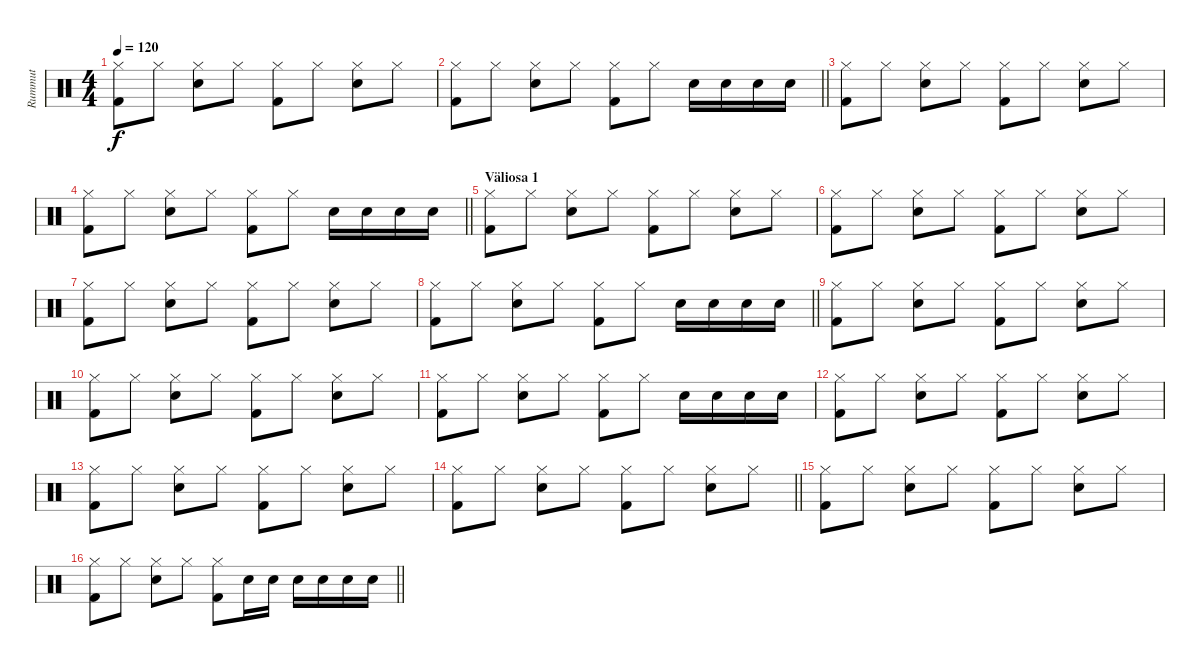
\track ("Rummut" "Rummut") {instrument percussion}
\staff {score}
\articulation defaults
\ts (4 4)
\tempo 120
\clef neutral
\ks c
("Hi-Hat (closed)" "Kick (hit) 2").8{dy f} "Hi-Hat (closed)".8 ("Hi-Hat (closed)" "Electric Snare (hit)").8 "Hi-Hat (closed)".8 ("Hi-Hat (closed)" "Kick (hit) 2").8 "Hi-Hat (closed)".8 ("Hi-Hat (closed)" "Electric Snare (hit)").8 "Hi-Hat (closed)".8 |
\barLineRight lightlight
("Hi-Hat (closed)" "Kick (hit) 2").8 "Hi-Hat (closed)".8 ("Hi-Hat (closed)" "Electric Snare (hit)").8 "Hi-Hat (closed)".8 ("Hi-Hat (closed)" "Kick (hit) 2").8 "Hi-Hat (closed)".8 "Electric Snare (hit)".16 "Electric Snare (hit)".16 "Electric Snare (hit)".16 "Electric Snare (hit)".16 |
("Hi-Hat (closed)" "Kick (hit) 2").8 "Hi-Hat (closed)".8 ("Hi-Hat (closed)" "Electric Snare (hit)").8 "Hi-Hat (closed)".8 ("Hi-Hat (closed)" "Kick (hit) 2").8 "Hi-Hat (closed)".8 ("Hi-Hat (closed)" "Electric Snare (hit)").8 "Hi-Hat (closed)".8 |
\barLineRight lightlight
("Hi-Hat (closed)" "Kick (hit) 2").8 "Hi-Hat (closed)".8 ("Hi-Hat (closed)" "Electric Snare (hit)").8 "Hi-Hat (closed)".8 ("Hi-Hat (closed)" "Kick (hit) 2").8 "Hi-Hat (closed)".8 "Electric Snare (hit)".16 "Electric Snare (hit)".16 "Electric Snare (hit)".16 "Electric Snare (hit)".16 |
\section ("" "Väliosa 1")
("Hi-Hat (closed)" "Kick (hit) 2").8 "Hi-Hat (closed)".8 ("Hi-Hat (closed)" "Electric Snare (hit)").8 "Hi-Hat (closed)".8 ("Hi-Hat (closed)" "Kick (hit) 2").8 "Hi-Hat (closed)".8 ("Hi-Hat (closed)" "Electric Snare (hit)").8 "Hi-Hat (closed)".8 |
("Hi-Hat (closed)" "Kick (hit) 2").8 "Hi-Hat (closed)".8 ("Hi-Hat (closed)" "Electric Snare (hit)").8 "Hi-Hat (closed)".8 ("Hi-Hat (closed)" "Kick (hit) 2").8 "Hi-Hat (closed)".8 ("Hi-Hat (closed)" "Electric Snare (hit)").8 "Hi-Hat (closed)".8 |
("Hi-Hat (closed)" "Kick (hit) 2").8 "Hi-Hat (closed)".8 ("Hi-Hat (closed)" "Electric Snare (hit)").8 "Hi-Hat (closed)".8 ("Hi-Hat (closed)" "Kick (hit) 2").8 "Hi-Hat (closed)".8 ("Hi-Hat (closed)" "Electric Snare (hit)").8 "Hi-Hat (closed)".8 |
\barLineRight lightlight
("Hi-Hat (closed)" "Kick (hit) 2").8 "Hi-Hat (closed)".8 ("Hi-Hat (closed)" "Electric Snare (hit)").8 "Hi-Hat (closed)".8 ("Hi-Hat (closed)" "Kick (hit) 2").8 "Hi-Hat (closed)".8 "Electric Snare (hit)".16 "Electric Snare (hit)".16 "Electric Snare (hit)".16 "Electric Snare (hit)".16 |
("Hi-Hat (closed)" "Kick (hit) 2").8 "Hi-Hat (closed)".8 ("Hi-Hat (closed)" "Electric Snare (hit)").8 "Hi-Hat (closed)".8 ("Hi-Hat (closed)" "Kick (hit) 2").8 "Hi-Hat (closed)".8 ("Hi-Hat (closed)" "Electric Snare (hit)").8 "Hi-Hat (closed)".8 |
("Hi-Hat (closed)" "Kick (hit) 2").8 "Hi-Hat (closed)".8 ("Hi-Hat (closed)" "Electric Snare (hit)").8 "Hi-Hat (closed)".8 ("Hi-Hat (closed)" "Kick (hit) 2").8 "Hi-Hat (closed)".8 ("Hi-Hat (closed)" "Electric Snare (hit)").8 "Hi-Hat (closed)".8 |
("Hi-Hat (closed)" "Kick (hit) 2").8 "Hi-Hat (closed)".8 ("Hi-Hat (closed)" "Electric Snare (hit)").8 "Hi-Hat (closed)".8 ("Hi-Hat (closed)" "Kick (hit) 2").8 "Hi-Hat (closed)".8 "Electric Snare (hit)".16 "Electric Snare (hit)".16 "Electric Snare (hit)".16 "Electric Snare (hit)".16 |
("Hi-Hat (closed)" "Kick (hit) 2").8 "Hi-Hat (closed)".8 ("Hi-Hat (closed)" "Electric Snare (hit)").8 "Hi-Hat (closed)".8 ("Hi-Hat (closed)" "Kick (hit) 2").8 "Hi-Hat (closed)".8 ("Hi-Hat (closed)" "Electric Snare (hit)").8 "Hi-Hat (closed)".8 |
("Hi-Hat (closed)" "Kick (hit) 2").8 "Hi-Hat (closed)".8 ("Hi-Hat (closed)" "Electric Snare (hit)").8 "Hi-Hat (closed)".8 ("Hi-Hat (closed)" "Kick (hit) 2").8 "Hi-Hat (closed)".8 ("Hi-Hat (closed)" "Electric Snare (hit)").8 "Hi-Hat (closed)".8 |
\barLineRight lightlight
("Hi-Hat (closed)" "Kick (hit) 2").8 "Hi-Hat (closed)".8 ("Hi-Hat (closed)" "Electric Snare (hit)").8 "Hi-Hat (closed)".8 ("Hi-Hat (closed)" "Kick (hit) 2").8 "Hi-Hat (closed)".8 ("Hi-Hat (closed)" "Electric Snare (hit)").8 "Hi-Hat (closed)".8 |
("Hi-Hat (closed)" "Kick (hit) 2").8 "Hi-Hat (closed)".8 ("Hi-Hat (closed)" "Electric Snare (hit)").8 "Hi-Hat (closed)".8 ("Hi-Hat (closed)" "Kick (hit) 2").8 "Hi-Hat (closed)".8 ("Hi-Hat (closed)" "Electric Snare (hit)").8 "Hi-Hat (closed)".8 |
\barLineRight lightlight
("Hi-Hat (closed)" "Kick (hit) 2").8 "Hi-Hat (closed)".8 ("Hi-Hat (closed)" "Electric Snare (hit)").8 "Hi-Hat (closed)".8 ("Hi-Hat (closed)" "Kick (hit) 2").8 "Electric Snare (hit)".16 "Electric Snare (hit)".16 "Electric Snare (hit)".16 "Electric Snare (hit)".16 "Electric Snare (hit)".16 "Electric Snare (hit)".16
